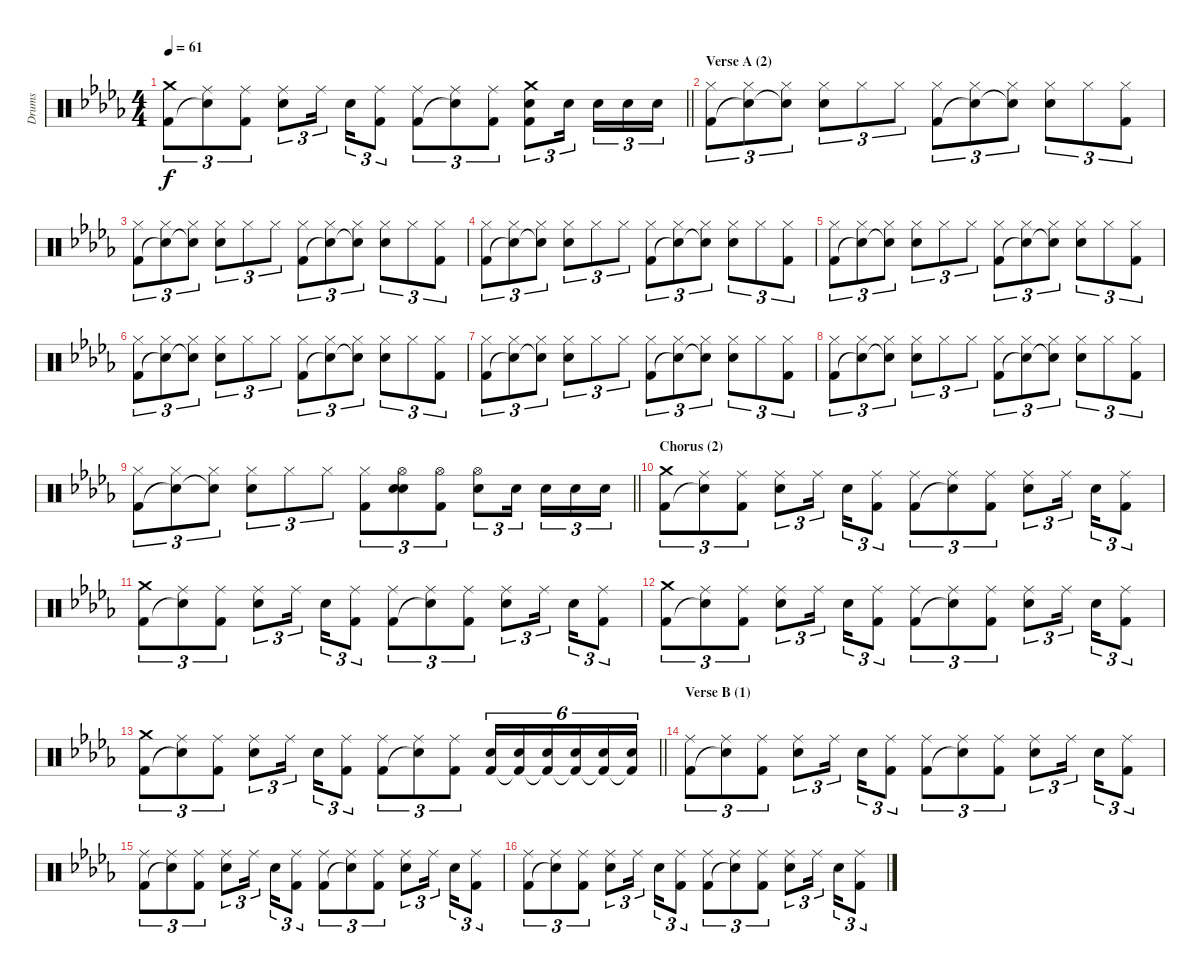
\track ("Drums" "Drums") {instrument percussion}
\staff {score}
\articulation defaults
\ts (4 4)
\tempo 61
\clef neutral
\barLineRight lightlight
\ks bbminor
("Crash medium (hit)" "Kick (hit) 2").8{tu (3 2) dy f} ("Ride (middle)" "Snare (hit)"{t}).8{tu (3 2)} ("Ride (middle)" "Kick (hit) 2").8{tu (3 2)} ("Ride (middle)" "Electric Snare (hit)").8{tu (3 2)} "Ride (middle)".16{tu (3 2)} "Electric Snare (hit)".16{tu (3 2)} ("Ride (middle)" "Kick (hit) 2").8{tu (3 2)} ("Ride (middle)" "Kick (hit) 2").8{tu (3 2)} ("Ride (middle)" "Snare (hit)"{t}).8{tu (3 2)} ("Ride (middle)" "Kick (hit) 2").8{tu (3 2)} ("Crash medium (hit)" "Electric Snare (hit)" "Kick (hit) 2").8{tu (3 2)} "Electric Snare (hit)".16{tu (3 2)} "Electric Snare (hit)".16{tu (3 2)} "Electric Snare (hit)".16{tu (3 2)} "Electric Snare (hit)".16{tu (3 2)} |
\section ("" "Verse A (2)")
("Hi-Hat (closed)" "Kick (hit) 2").8{tu (3 2)} ("Hi-Hat (closed)" "Snare (hit)"{t}).8{tu (3 2)} ("Hi-Hat (closed)" "Snare (hit)"{t}).8{tu (3 2)} ("Hi-Hat (closed)" "Electric Snare (hit)").8{tu (3 2)} "Hi-Hat (closed)".8{tu (3 2)} "Hi-Hat (closed)".8{tu (3 2)} ("Hi-Hat (closed)" "Kick (hit) 2").8{tu (3 2)} ("Hi-Hat (closed)" "Snare (hit)"{t}).8{tu (3 2)} ("Hi-Hat (closed)" "Snare (hit)"{t}).8{tu (3 2)} ("Hi-Hat (closed)" "Electric Snare (hit)").8{tu (3 2)} "Hi-Hat (closed)".8{tu (3 2)} ("Hi-Hat (closed)" "Kick (hit) 2").8{tu (3 2)} |
("Hi-Hat (closed)" "Kick (hit) 2").8{tu (3 2)} ("Hi-Hat (closed)" "Snare (hit)"{t}).8{tu (3 2)} ("Hi-Hat (closed)" "Snare (hit)"{t}).8{tu (3 2)} ("Hi-Hat (closed)" "Electric Snare (hit)").8{tu (3 2)} "Hi-Hat (closed)".8{tu (3 2)} "Hi-Hat (closed)".8{tu (3 2)} ("Hi-Hat (closed)" "Kick (hit) 2").8{tu (3 2)} ("Hi-Hat (closed)" "Snare (hit)"{t}).8{tu (3 2)} ("Hi-Hat (closed)" "Snare (hit)"{t}).8{tu (3 2)} ("Hi-Hat (closed)" "Electric Snare (hit)").8{tu (3 2)} "Hi-Hat (closed)".8{tu (3 2)} ("Hi-Hat (closed)" "Kick (hit) 2").8{tu (3 2)} |
("Hi-Hat (closed)" "Kick (hit) 2").8{tu (3 2)} ("Hi-Hat (closed)" "Snare (hit)"{t}).8{tu (3 2)} ("Hi-Hat (closed)" "Snare (hit)"{t}).8{tu (3 2)} ("Hi-Hat (closed)" "Electric Snare (hit)").8{tu (3 2)} "Hi-Hat (closed)".8{tu (3 2)} "Hi-Hat (closed)".8{tu (3 2)} ("Hi-Hat (closed)" "Kick (hit) 2").8{tu (3 2)} ("Hi-Hat (closed)" "Snare (hit)"{t}).8{tu (3 2)} ("Hi-Hat (closed)" "Snare (hit)"{t}).8{tu (3 2)} ("Hi-Hat (closed)" "Electric Snare (hit)").8{tu (3 2)} "Hi-Hat (closed)".8{tu (3 2)} ("Hi-Hat (closed)" "Kick (hit) 2").8{tu (3 2)} |
("Hi-Hat (closed)" "Kick (hit) 2").8{tu (3 2)} ("Hi-Hat (closed)" "Snare (hit)"{t}).8{tu (3 2)} ("Hi-Hat (closed)" "Snare (hit)"{t}).8{tu (3 2)} ("Hi-Hat (closed)" "Electric Snare (hit)").8{tu (3 2)} "Hi-Hat (closed)".8{tu (3 2)} "Hi-Hat (closed)".8{tu (3 2)} ("Hi-Hat (closed)" "Kick (hit) 2").8{tu (3 2)} ("Hi-Hat (closed)" "Snare (hit)"{t}).8{tu (3 2)} ("Hi-Hat (closed)" "Snare (hit)"{t}).8{tu (3 2)} ("Hi-Hat (closed)" "Electric Snare (hit)").8{tu (3 2)} "Hi-Hat (closed)".8{tu (3 2)} ("Hi-Hat (closed)" "Kick (hit) 2").8{tu (3 2)} |
("Hi-Hat (closed)" "Kick (hit) 2").8{tu (3 2)} ("Hi-Hat (closed)" "Snare (hit)"{t}).8{tu (3 2)} ("Hi-Hat (closed)" "Snare (hit)"{t}).8{tu (3 2)} ("Hi-Hat (closed)" "Electric Snare (hit)").8{tu (3 2)} "Hi-Hat (closed)".8{tu (3 2)} "Hi-Hat (closed)".8{tu (3 2)} ("Hi-Hat (closed)" "Kick (hit) 2").8{tu (3 2)} ("Hi-Hat (closed)" "Snare (hit)"{t}).8{tu (3 2)} ("Hi-Hat (closed)" "Snare (hit)"{t}).8{tu (3 2)} ("Hi-Hat (closed)" "Electric Snare (hit)").8{tu (3 2)} "Hi-Hat (closed)".8{tu (3 2)} ("Hi-Hat (closed)" "Kick (hit) 2").8{tu (3 2)} |
("Hi-Hat (closed)" "Kick (hit) 2").8{tu (3 2)} ("Hi-Hat (closed)" "Snare (hit)"{t}).8{tu (3 2)} ("Hi-Hat (closed)" "Snare (hit)"{t}).8{tu (3 2)} ("Hi-Hat (closed)" "Electric Snare (hit)").8{tu (3 2)} "Hi-Hat (closed)".8{tu (3 2)} "Hi-Hat (closed)".8{tu (3 2)} ("Hi-Hat (closed)" "Kick (hit) 2").8{tu (3 2)} ("Hi-Hat (closed)" "Snare (hit)"{t}).8{tu (3 2)} ("Hi-Hat (closed)" "Snare (hit)"{t}).8{tu (3 2)} ("Hi-Hat (closed)" "Electric Snare (hit)").8{tu (3 2)} "Hi-Hat (closed)".8{tu (3 2)} ("Hi-Hat (closed)" "Kick (hit) 2").8{tu (3 2)} |
("Hi-Hat (closed)" "Kick (hit) 2").8{tu (3 2)} ("Hi-Hat (closed)" "Snare (hit)"{t}).8{tu (3 2)} ("Hi-Hat (closed)" "Snare (hit)"{t}).8{tu (3 2)} ("Hi-Hat (closed)" "Electric Snare (hit)").8{tu (3 2)} "Hi-Hat (closed)".8{tu (3 2)} "Hi-Hat (closed)".8{tu (3 2)} ("Hi-Hat (closed)" "Kick (hit) 2").8{tu (3 2)} ("Hi-Hat (closed)" "Snare (hit)"{t}).8{tu (3 2)} ("Hi-Hat (closed)" "Snare (hit)"{t}).8{tu (3 2)} ("Hi-Hat (closed)" "Electric Snare (hit)").8{tu (3 2)} "Hi-Hat (closed)".8{tu (3 2)} ("Hi-Hat (closed)" "Kick (hit) 2").8{tu (3 2)} |
\barLineRight lightlight
("Hi-Hat (closed)" "Kick (hit) 2").8{tu (3 2)} ("Hi-Hat (closed)" "Snare (hit)"{t}).8{tu (3 2)} ("Hi-Hat (closed)" "Snare (hit)"{t}).8{tu (3 2)} ("Hi-Hat (closed)" "Electric Snare (hit)").8{tu (3 2)} "Hi-Hat (closed)".8{tu (3 2)} "Hi-Hat (closed)".8{tu (3 2)} ("Hi-Hat (closed)" "Kick (hit) 2").8{tu (3 2)} ("Hi-Hat (open)" "Electric Snare (hit)" "Snare (hit)").8{tu (3 2)} ("Hi-Hat (open)" "Kick (hit) 2").8{tu (3 2)} ("Hi-Hat (open)" "Electric Snare (hit)").8{tu (3 2)} "Electric Snare (hit)".16{tu (3 2)} "Electric Snare (hit)".16{tu (3 2)} "Electric Snare (hit)".16{tu (3 2)} "Electric Snare (hit)".16{tu (3 2)} |
\section ("" "Chorus (2)")
("Crash medium (hit)" "Kick (hit) 2").8{tu (3 2)} ("Ride (middle)" "Snare (hit)"{t}).8{tu (3 2)} ("Ride (middle)" "Kick (hit) 2").8{tu (3 2)} ("Ride (middle)" "Electric Snare (hit)").8{tu (3 2)} "Ride (middle)".16{tu (3 2)} "Electric Snare (hit)".16{tu (3 2)} ("Ride (middle)" "Kick (hit) 2").8{tu (3 2)} ("Ride (middle)" "Kick (hit) 2").8{tu (3 2)} ("Ride (middle)" "Snare (hit)"{t}).8{tu (3 2)} ("Ride (middle)" "Kick (hit) 2").8{tu (3 2)} ("Ride (middle)" "Electric Snare (hit)").8{tu (3 2)} "Ride (middle)".16{tu (3 2)} "Electric Snare (hit)".16{tu (3 2)} ("Ride (middle)" "Kick (hit) 2").8{tu (3 2)} |
("Crash medium (hit)" "Kick (hit) 2").8{tu (3 2)} ("Ride (middle)" "Snare (hit)"{t}).8{tu (3 2)} ("Ride (middle)" "Kick (hit) 2").8{tu (3 2)} ("Ride (middle)" "Electric Snare (hit)").8{tu (3 2)} "Ride (middle)".16{tu (3 2)} "Electric Snare (hit)".16{tu (3 2)} ("Ride (middle)" "Kick (hit) 2").8{tu (3 2)} ("Ride (middle)" "Kick (hit) 2").8{tu (3 2)} ("Ride (middle)" "Snare (hit)"{t}).8{tu (3 2)} ("Ride (middle)" "Kick (hit) 2").8{tu (3 2)} ("Ride (middle)" "Electric Snare (hit)").8{tu (3 2)} "Ride (middle)".16{tu (3 2)} "Electric Snare (hit)".16{tu (3 2)} ("Ride (middle)" "Kick (hit) 2").8{tu (3 2)} |
("Crash medium (hit)" "Kick (hit) 2").8{tu (3 2)} ("Ride (middle)" "Snare (hit)"{t}).8{tu (3 2)} ("Ride (middle)" "Kick (hit) 2").8{tu (3 2)} ("Ride (middle)" "Electric Snare (hit)").8{tu (3 2)} "Ride (middle)".16{tu (3 2)} "Electric Snare (hit)".16{tu (3 2)} ("Ride (middle)" "Kick (hit) 2").8{tu (3 2)} ("Ride (middle)" "Kick (hit) 2").8{tu (3 2)} ("Ride (middle)" "Snare (hit)"{t}).8{tu (3 2)} ("Ride (middle)" "Kick (hit) 2").8{tu (3 2)} ("Ride (middle)" "Electric Snare (hit)").8{tu (3 2)} "Ride (middle)".16{tu (3 2)} "Electric Snare (hit)".16{tu (3 2)} ("Ride (middle)" "Kick (hit) 2").8{tu (3 2)} |
\barLineRight lightlight
("Crash medium (hit)" "Kick (hit) 2").8{tu (3 2)} ("Ride (middle)" "Snare (hit)"{t}).8{tu (3 2)} ("Ride (middle)" "Kick (hit) 2").8{tu (3 2)} ("Ride (middle)" "Electric Snare (hit)").8{tu (3 2)} "Ride (middle)".16{tu (3 2)} "Electric Snare (hit)".16{tu (3 2)} ("Ride (middle)" "Kick (hit) 2").8{tu (3 2)} ("Ride (middle)" "Kick (hit) 2").8{tu (3 2)} ("Ride (middle)" "Snare (hit)"{t}).8{tu (3 2)} ("Ride (middle)" "Kick (hit) 2").8{tu (3 2)} ("Electric Snare (hit)" "Kick (hit) 2").16{tu (6 4)} ("Electric Snare (hit)" "Kick (hit) 2"{t}).16{tu (6 4)} ("Electric Snare (hit)" "Kick (hit) 2"{t}).16{tu (6 4)} ("Electric Snare (hit)" "Kick (hit) 2"{t}).16{tu (6 4)} ("Electric Snare (hit)" "Kick (hit) 2"{t}).16{tu (6 4)} ("Electric Snare (hit)" "Kick (hit) 2"{t}).16{tu (6 4)} |
\section ("" "Verse B (1)")
("Ride (middle)" "Kick (hit) 2").8{tu (3 2)} ("Ride (middle)" "Snare (hit)"{t}).8{tu (3 2)} ("Ride (middle)" "Kick (hit) 2").8{tu (3 2)} ("Ride (middle)" "Electric Snare (hit)").8{tu (3 2)} "Ride (middle)".16{tu (3 2)} "Electric Snare (hit)".16{tu (3 2)} ("Ride (middle)" "Kick (hit) 2").8{tu (3 2)} ("Ride (middle)" "Kick (hit) 2").8{tu (3 2)} ("Ride (middle)" "Snare (hit)"{t}).8{tu (3 2)} ("Ride (middle)" "Kick (hit) 2").8{tu (3 2)} ("Ride (middle)" "Electric Snare (hit)").8{tu (3 2)} "Ride (middle)".16{tu (3 2)} "Electric Snare (hit)".16{tu (3 2)} ("Ride (middle)" "Kick (hit) 2").8{tu (3 2)} |
("Ride (middle)" "Kick (hit) 2").8{tu (3 2)} ("Ride (middle)" "Snare (hit)"{t}).8{tu (3 2)} ("Ride (middle)" "Kick (hit) 2").8{tu (3 2)} ("Ride (middle)" "Electric Snare (hit)").8{tu (3 2)} "Ride (middle)".16{tu (3 2)} "Electric Snare (hit)".16{tu (3 2)} ("Ride (middle)" "Kick (hit) 2").8{tu (3 2)} ("Ride (middle)" "Kick (hit) 2").8{tu (3 2)} ("Ride (middle)" "Snare (hit)"{t}).8{tu (3 2)} ("Ride (middle)" "Kick (hit) 2").8{tu (3 2)} ("Ride (middle)" "Electric Snare (hit)").8{tu (3 2)} "Ride (middle)".16{tu (3 2)} "Electric Snare (hit)".16{tu (3 2)} ("Ride (middle)" "Kick (hit) 2").8{tu (3 2)} |
("Ride (middle)" "Kick (hit) 2").8{tu (3 2)} ("Ride (middle)" "Snare (hit)"{t}).8{tu (3 2)} ("Ride (middle)" "Kick (hit) 2").8{tu (3 2)} ("Ride (middle)" "Electric Snare (hit)").8{tu (3 2)} "Ride (middle)".16{tu (3 2)} "Electric Snare (hit)".16{tu (3 2)} ("Ride (middle)" "Kick (hit) 2").8{tu (3 2)} ("Ride (middle)" "Kick (hit) 2").8{tu (3 2)} ("Ride (middle)" "Snare (hit)"{t}).8{tu (3 2)} ("Ride (middle)" "Kick (hit) 2").8{tu (3 2)} ("Ride (middle)" "Electric Snare (hit)").8{tu (3 2)} "Ride (middle)".16{tu (3 2)} "Electric Snare (hit)".16{tu (3 2)} ("Ride (middle)" "Kick (hit) 2").8{tu (3 2)}
